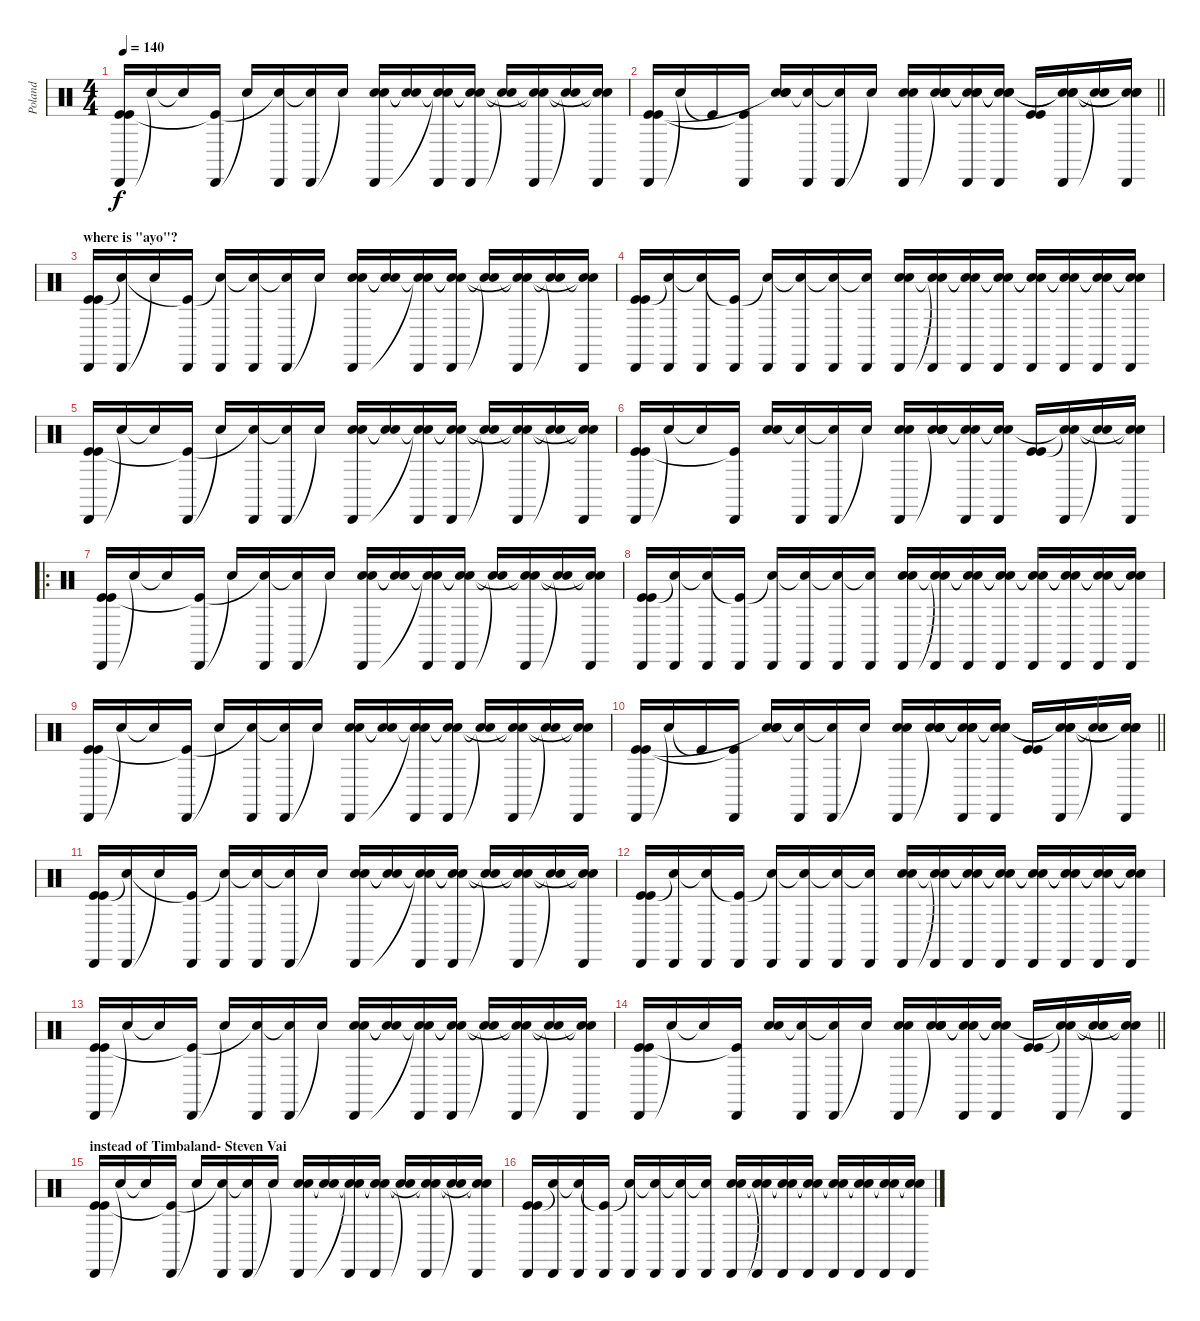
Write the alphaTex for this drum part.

\track ("Poland" "Poland") {instrument percussion}
\staff {score}
\articulation defaults
\ts (4 4)
\tempo 140
\clef neutral
\ks c
("Cabasa (hit)" "Kick (hit)" "Kick (hit)").16{dy f} "Snare (hit)"{t}.16 "Snare (hit)"{t}.16 ("Cabasa (hit)" "Kick (hit)"{t}).16 "Snare (hit)"{t}.16 ("Cabasa (hit)" "Snare (hit)"{t}).16 ("Cabasa (hit)" "Snare (hit)"{t}).16 "Snare (hit)"{t}.16 ("Hand Clap (hit)" "Hand Clap (hit)" "Cabasa (hit)").16 ("Snare (hit)"{t} "Snare (hit)"{t}).16 ("Cabasa (hit)" "Snare (hit)"{t} "Snare (hit)"{t}).16 ("Cabasa (hit)" "Snare (hit)"{t} "Snare (hit)"{t}).16 ("Snare (hit)"{t} "Snare (hit)"{t}).16 ("Cabasa (hit)" "Snare (hit)"{t} "Snare (hit)"{t}).16 ("Snare (hit)"{t} "Snare (hit)"{t}).16 ("Cabasa (hit)" "Snare (hit)"{t} "Snare (hit)"{t}).16 |
\barLineRight lightlight
("Cabasa (hit)" "Kick (hit)" "Kick (hit)").16 "Snare (hit)"{t}.16 "Kick (hit)"{t}.16 ("Cabasa (hit)" "Kick (hit)"{t}).16 ("Hand Clap (hit)" "Hand Clap (hit)" "Snare (hit)"{t}).16 ("Cabasa (hit)" "Snare (hit)"{t}).16 ("Cabasa (hit)" "Snare (hit)"{t}).16 "Snare (hit)"{t}.16 ("Hand Clap (hit)" "Hand Clap (hit)" "Cabasa (hit)").16 ("Hand Clap (hit)" "Hand Clap (hit)" "Snare (hit)"{t} "Snare (hit)").16 ("Hand Clap (hit)" "Cabasa (hit)" "Snare (hit)"{t} "Snare (hit)"{t}).16 ("Hand Clap (hit)" "Cabasa (hit)" "Snare (hit)"{t} "Snare (hit)"{t}).16 ("Kick (hit)" "Kick (hit)").16 ("Hand Clap (hit)" "Cabasa (hit)" "Snare (hit)"{t} "Snare (hit)"{t}).16 ("Snare (hit)"{t} "Snare (hit)"{t}).16 ("Hand Clap (hit)" "Cabasa (hit)" "Snare (hit)"{t} "Snare (hit)"{t}).16 |
\section ("" "where is \"ayo\"?")
("Cabasa (hit)" "Kick (hit)" "Kick (hit)").16 ("Cabasa (hit)" "Snare (hit)"{t}).16 "Snare (hit)"{t}.16 ("Cabasa (hit)" "Kick (hit)"{t}).16 ("Cabasa (hit)" "Snare (hit)"{t}).16 ("Cabasa (hit)" "Snare (hit)"{t}).16 ("Cabasa (hit)" "Snare (hit)"{t}).16 "Snare (hit)"{t}.16 ("Hand Clap (hit)" "Hand Clap (hit)" "Cabasa (hit)").16 ("Snare (hit)"{t} "Snare (hit)"{t}).16 ("Cabasa (hit)" "Snare (hit)"{t} "Snare (hit)"{t}).16 ("Cabasa (hit)" "Snare (hit)"{t} "Snare (hit)"{t}).16 ("Snare (hit)"{t} "Snare (hit)"{t}).16 ("Cabasa (hit)" "Snare (hit)"{t} "Snare (hit)"{t}).16 ("Snare (hit)"{t} "Snare (hit)"{t}).16 ("Cabasa (hit)" "Snare (hit)"{t} "Snare (hit)"{t}).16 |
("Cabasa (hit)" "Kick (hit)" "Kick (hit)").16 ("Cabasa (hit)" "Snare (hit)"{t}).16 ("Cabasa (hit)" "Snare (hit)"{t}).16 ("Cabasa (hit)" "Kick (hit)"{t}).16 ("Cabasa (hit)" "Snare (hit)"{t}).16 ("Cabasa (hit)" "Snare (hit)"{t}).16 ("Cabasa (hit)" "Snare (hit)"{t}).16 ("Cabasa (hit)" "Snare (hit)"{t}).16 ("Hand Clap (hit)" "Hand Clap (hit)" "Cabasa (hit)").16 ("Cabasa (hit)" "Snare (hit)"{t} "Snare (hit)"{t}).16 ("Cabasa (hit)" "Snare (hit)"{t} "Snare (hit)"{t}).16 ("Cabasa (hit)" "Snare (hit)"{t} "Snare (hit)"{t}).16 ("Cabasa (hit)" "Snare (hit)"{t} "Snare (hit)"{t}).16 ("Cabasa (hit)" "Snare (hit)"{t} "Snare (hit)"{t}).16 ("Cabasa (hit)" "Snare (hit)"{t} "Snare (hit)"{t}).16 ("Cabasa (hit)" "Snare (hit)"{t} "Snare (hit)"{t}).16 |
("Cabasa (hit)" "Kick (hit)" "Kick (hit)").16 "Snare (hit)"{t}.16 "Snare (hit)"{t}.16 ("Cabasa (hit)" "Kick (hit)"{t}).16 "Snare (hit)"{t}.16 ("Cabasa (hit)" "Snare (hit)"{t}).16 ("Cabasa (hit)" "Snare (hit)"{t}).16 "Snare (hit)"{t}.16 ("Hand Clap (hit)" "Hand Clap (hit)" "Cabasa (hit)").16 ("Snare (hit)"{t} "Snare (hit)"{t}).16 ("Cabasa (hit)" "Snare (hit)"{t} "Snare (hit)"{t}).16 ("Cabasa (hit)" "Snare (hit)"{t} "Snare (hit)"{t}).16 ("Snare (hit)"{t} "Snare (hit)"{t}).16 ("Cabasa (hit)" "Snare (hit)"{t} "Snare (hit)"{t}).16 ("Snare (hit)"{t} "Snare (hit)"{t}).16 ("Cabasa (hit)" "Snare (hit)"{t} "Snare (hit)"{t}).16 |
("Cabasa (hit)" "Kick (hit)" "Kick (hit)").16 "Snare (hit)"{t}.16 "Snare (hit)"{t}.16 ("Cabasa (hit)" "Kick (hit)"{t}).16 ("Hand Clap (hit)" "Hand Clap (hit)").16 ("Cabasa (hit)" "Snare (hit)"{t}).16 ("Cabasa (hit)" "Snare (hit)"{t}).16 "Snare (hit)"{t}.16 ("Hand Clap (hit)" "Hand Clap (hit)" "Cabasa (hit)").16 ("Hand Clap (hit)" "Hand Clap (hit)" "Snare (hit)"{t} "Snare (hit)").16 ("Cabasa (hit)" "Snare (hit)"{t} "Snare (hit)"{t}).16 ("Cabasa (hit)" "Snare (hit)"{t} "Snare (hit)"{t}).16 ("Kick (hit)" "Kick (hit)").16 ("Cabasa (hit)" "Snare (hit)"{t} "Snare (hit)"{t}).16 ("Snare (hit)"{t} "Snare (hit)"{t}).16 ("Cabasa (hit)" "Snare (hit)"{t} "Snare (hit)"{t}).16 |
\ro
("Cabasa (hit)" "Kick (hit)" "Kick (hit)").16 "Snare (hit)"{t}.16 "Snare (hit)"{t}.16 ("Cabasa (hit)" "Kick (hit)"{t}).16 "Snare (hit)"{t}.16 ("Cabasa (hit)" "Snare (hit)"{t}).16 ("Cabasa (hit)" "Snare (hit)"{t}).16 "Snare (hit)"{t}.16 ("Hand Clap (hit)" "Hand Clap (hit)" "Cabasa (hit)").16 ("Snare (hit)"{t} "Snare (hit)"{t}).16 ("Cabasa (hit)" "Snare (hit)"{t} "Snare (hit)"{t}).16 ("Cabasa (hit)" "Snare (hit)"{t} "Snare (hit)"{t}).16 ("Snare (hit)"{t} "Snare (hit)"{t}).16 ("Cabasa (hit)" "Snare (hit)"{t} "Snare (hit)"{t}).16 ("Snare (hit)"{t} "Snare (hit)"{t}).16 ("Cabasa (hit)" "Snare (hit)"{t} "Snare (hit)"{t}).16 |
("Cabasa (hit)" "Kick (hit)" "Kick (hit)").16 ("Cabasa (hit)" "Snare (hit)"{t}).16 ("Cabasa (hit)" "Snare (hit)"{t}).16 ("Cabasa (hit)" "Kick (hit)"{t}).16 ("Cabasa (hit)" "Snare (hit)"{t}).16 ("Cabasa (hit)" "Snare (hit)"{t}).16 ("Cabasa (hit)" "Snare (hit)"{t}).16 ("Cabasa (hit)" "Snare (hit)"{t}).16 ("Hand Clap (hit)" "Hand Clap (hit)" "Cabasa (hit)").16 ("Cabasa (hit)" "Snare (hit)"{t} "Snare (hit)"{t}).16 ("Cabasa (hit)" "Snare (hit)"{t} "Snare (hit)"{t}).16 ("Cabasa (hit)" "Snare (hit)"{t} "Snare (hit)"{t}).16 ("Cabasa (hit)" "Snare (hit)"{t} "Snare (hit)"{t}).16 ("Cabasa (hit)" "Snare (hit)"{t} "Snare (hit)"{t}).16 ("Cabasa (hit)" "Snare (hit)"{t} "Snare (hit)"{t}).16 ("Cabasa (hit)" "Snare (hit)"{t} "Snare (hit)"{t}).16 |
("Cabasa (hit)" "Kick (hit)" "Kick (hit)").16 "Snare (hit)"{t}.16 "Snare (hit)"{t}.16 ("Cabasa (hit)" "Kick (hit)"{t}).16 "Snare (hit)"{t}.16 ("Cabasa (hit)" "Snare (hit)"{t}).16 ("Cabasa (hit)" "Snare (hit)"{t}).16 "Snare (hit)"{t}.16 ("Hand Clap (hit)" "Hand Clap (hit)" "Cabasa (hit)").16 ("Snare (hit)"{t} "Snare (hit)"{t}).16 ("Cabasa (hit)" "Snare (hit)"{t} "Snare (hit)"{t}).16 ("Cabasa (hit)" "Snare (hit)"{t} "Snare (hit)"{t}).16 ("Snare (hit)"{t} "Snare (hit)"{t}).16 ("Cabasa (hit)" "Snare (hit)"{t} "Snare (hit)"{t}).16 ("Snare (hit)"{t} "Snare (hit)"{t}).16 ("Cabasa (hit)" "Snare (hit)"{t} "Snare (hit)"{t}).16 |
\barLineRight lightlight
("Cabasa (hit)" "Kick (hit)" "Kick (hit)").16 "Snare (hit)"{t}.16 "Kick (hit)"{t}.16 ("Cabasa (hit)" "Kick (hit)"{t}).16 ("Hand Clap (hit)" "Hand Clap (hit)" "Snare (hit)"{t}).16 ("Cabasa (hit)" "Snare (hit)"{t}).16 ("Cabasa (hit)" "Snare (hit)"{t}).16 "Snare (hit)"{t}.16 ("Hand Clap (hit)" "Hand Clap (hit)" "Cabasa (hit)").16 ("Hand Clap (hit)" "Hand Clap (hit)" "Snare (hit)"{t} "Snare (hit)").16 ("Hand Clap (hit)" "Cabasa (hit)" "Snare (hit)"{t} "Snare (hit)"{t}).16 ("Hand Clap (hit)" "Cabasa (hit)" "Snare (hit)"{t} "Snare (hit)"{t}).16 ("Kick (hit)" "Kick (hit)").16 ("Hand Clap (hit)" "Cabasa (hit)" "Snare (hit)"{t} "Snare (hit)"{t}).16 ("Snare (hit)"{t} "Snare (hit)"{t}).16 ("Hand Clap (hit)" "Cabasa (hit)" "Snare (hit)"{t} "Snare (hit)"{t}).16 |
("Cabasa (hit)" "Kick (hit)" "Kick (hit)").16 ("Cabasa (hit)" "Snare (hit)"{t}).16 "Snare (hit)"{t}.16 ("Cabasa (hit)" "Kick (hit)"{t}).16 ("Cabasa (hit)" "Snare (hit)"{t}).16 ("Cabasa (hit)" "Snare (hit)"{t}).16 ("Cabasa (hit)" "Snare (hit)"{t}).16 "Snare (hit)"{t}.16 ("Hand Clap (hit)" "Hand Clap (hit)" "Cabasa (hit)").16 ("Snare (hit)"{t} "Snare (hit)"{t}).16 ("Cabasa (hit)" "Snare (hit)"{t} "Snare (hit)"{t}).16 ("Cabasa (hit)" "Snare (hit)"{t} "Snare (hit)"{t}).16 ("Snare (hit)"{t} "Snare (hit)"{t}).16 ("Cabasa (hit)" "Snare (hit)"{t} "Snare (hit)"{t}).16 ("Snare (hit)"{t} "Snare (hit)"{t}).16 ("Cabasa (hit)" "Snare (hit)"{t} "Snare (hit)"{t}).16 |
("Cabasa (hit)" "Kick (hit)" "Kick (hit)").16 ("Cabasa (hit)" "Snare (hit)"{t}).16 ("Cabasa (hit)" "Snare (hit)"{t}).16 ("Cabasa (hit)" "Kick (hit)"{t}).16 ("Cabasa (hit)" "Snare (hit)"{t}).16 ("Cabasa (hit)" "Snare (hit)"{t}).16 ("Cabasa (hit)" "Snare (hit)"{t}).16 ("Cabasa (hit)" "Snare (hit)"{t}).16 ("Hand Clap (hit)" "Hand Clap (hit)" "Cabasa (hit)").16 ("Cabasa (hit)" "Snare (hit)"{t} "Snare (hit)"{t}).16 ("Cabasa (hit)" "Snare (hit)"{t} "Snare (hit)"{t}).16 ("Cabasa (hit)" "Snare (hit)"{t} "Snare (hit)"{t}).16 ("Cabasa (hit)" "Snare (hit)"{t} "Snare (hit)"{t}).16 ("Cabasa (hit)" "Snare (hit)"{t} "Snare (hit)"{t}).16 ("Cabasa (hit)" "Snare (hit)"{t} "Snare (hit)"{t}).16 ("Cabasa (hit)" "Snare (hit)"{t} "Snare (hit)"{t}).16 |
("Cabasa (hit)" "Kick (hit)" "Kick (hit)").16 "Snare (hit)"{t}.16 "Snare (hit)"{t}.16 ("Cabasa (hit)" "Kick (hit)"{t}).16 "Snare (hit)"{t}.16 ("Cabasa (hit)" "Snare (hit)"{t}).16 ("Cabasa (hit)" "Snare (hit)"{t}).16 "Snare (hit)"{t}.16 ("Hand Clap (hit)" "Hand Clap (hit)" "Cabasa (hit)").16 ("Snare (hit)"{t} "Snare (hit)"{t}).16 ("Cabasa (hit)" "Snare (hit)"{t} "Snare (hit)"{t}).16 ("Cabasa (hit)" "Snare (hit)"{t} "Snare (hit)"{t}).16 ("Snare (hit)"{t} "Snare (hit)"{t}).16 ("Cabasa (hit)" "Snare (hit)"{t} "Snare (hit)"{t}).16 ("Snare (hit)"{t} "Snare (hit)"{t}).16 ("Cabasa (hit)" "Snare (hit)"{t} "Snare (hit)"{t}).16 |
\barLineRight lightlight
("Cabasa (hit)" "Kick (hit)" "Kick (hit)").16 "Snare (hit)"{t}.16 "Snare (hit)"{t}.16 ("Cabasa (hit)" "Kick (hit)"{t}).16 ("Hand Clap (hit)" "Hand Clap (hit)").16 ("Cabasa (hit)" "Snare (hit)"{t}).16 ("Cabasa (hit)" "Snare (hit)"{t}).16 "Snare (hit)"{t}.16 ("Hand Clap (hit)" "Hand Clap (hit)" "Cabasa (hit)").16 ("Hand Clap (hit)" "Hand Clap (hit)" "Snare (hit)"{t} "Snare (hit)").16 ("Cabasa (hit)" "Snare (hit)"{t} "Snare (hit)"{t}).16 ("Cabasa (hit)" "Snare (hit)"{t} "Snare (hit)"{t}).16 ("Kick (hit)" "Kick (hit)").16 ("Cabasa (hit)" "Snare (hit)"{t} "Snare (hit)"{t}).16 ("Snare (hit)"{t} "Snare (hit)"{t}).16 ("Cabasa (hit)" "Snare (hit)"{t} "Snare (hit)"{t}).16 |
\section ("" "instead of Timbaland- Steven Vai")
("Cabasa (hit)" "Kick (hit)" "Kick (hit)").16 "Snare (hit)"{t}.16 "Snare (hit)"{t}.16 ("Cabasa (hit)" "Kick (hit)"{t}).16 "Snare (hit)"{t}.16 ("Cabasa (hit)" "Snare (hit)"{t}).16 ("Cabasa (hit)" "Snare (hit)"{t}).16 "Snare (hit)"{t}.16 ("Hand Clap (hit)" "Hand Clap (hit)" "Cabasa (hit)").16 ("Snare (hit)"{t} "Snare (hit)"{t}).16 ("Cabasa (hit)" "Snare (hit)"{t} "Snare (hit)"{t}).16 ("Cabasa (hit)" "Snare (hit)"{t} "Snare (hit)"{t}).16 ("Snare (hit)"{t} "Snare (hit)"{t}).16 ("Cabasa (hit)" "Snare (hit)"{t} "Snare (hit)"{t}).16 ("Snare (hit)"{t} "Snare (hit)"{t}).16 ("Cabasa (hit)" "Snare (hit)"{t} "Snare (hit)"{t}).16 |
("Cabasa (hit)" "Kick (hit)" "Kick (hit)").16 ("Cabasa (hit)" "Snare (hit)"{t}).16 ("Cabasa (hit)" "Snare (hit)"{t}).16 ("Cabasa (hit)" "Kick (hit)"{t}).16 ("Cabasa (hit)" "Snare (hit)"{t}).16 ("Cabasa (hit)" "Snare (hit)"{t}).16 ("Cabasa (hit)" "Snare (hit)"{t}).16 ("Cabasa (hit)" "Snare (hit)"{t}).16 ("Hand Clap (hit)" "Hand Clap (hit)" "Cabasa (hit)").16 ("Cabasa (hit)" "Snare (hit)"{t} "Snare (hit)"{t}).16 ("Cabasa (hit)" "Snare (hit)"{t} "Snare (hit)"{t}).16 ("Cabasa (hit)" "Snare (hit)"{t} "Snare (hit)"{t}).16 ("Cabasa (hit)" "Snare (hit)"{t} "Snare (hit)"{t}).16 ("Cabasa (hit)" "Snare (hit)"{t} "Snare (hit)"{t}).16 ("Cabasa (hit)" "Snare (hit)"{t} "Snare (hit)"{t}).16 ("Cabasa (hit)" "Snare (hit)"{t} "Snare (hit)"{t}).16
